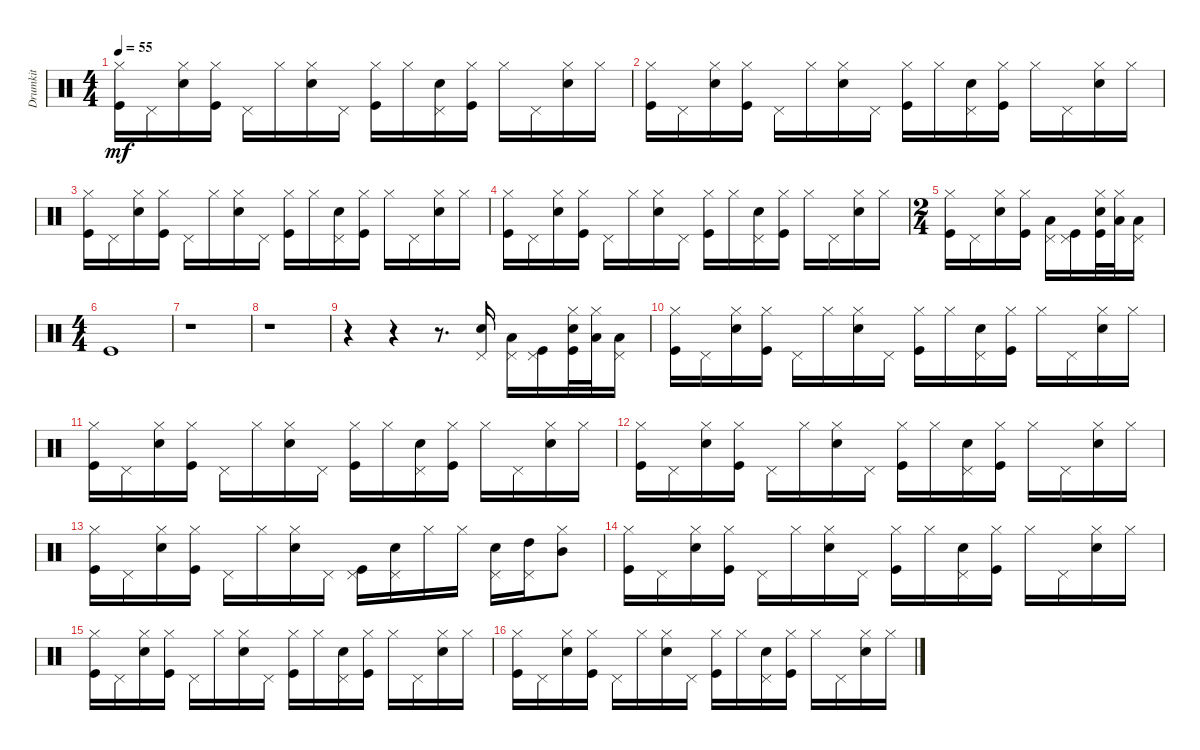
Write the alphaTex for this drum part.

\track ("Drumkit" "Drumkit") {instrument percussion}
\staff {score}
\articulation defaults
\ts (4 4)
\tempo 55
\clef neutral
\ks c
("Kick (hit)" "Hi-Hat (closed)").16{dy mf} "Pedal Hi-Hat (hit)".16 ("Hi-Hat (closed)" "Snare (hit) 2").16 ("Kick (hit)" "Hi-Hat (closed)").16 "Pedal Hi-Hat (hit)".16 "Hi-Hat (closed)".16 ("Snare (hit) 2" "Hi-Hat (closed)").16 "Pedal Hi-Hat (hit)".16 ("Kick (hit)" "Hi-Hat (closed)").16 "Hi-Hat (closed)".16 ("Snare (hit) 2" "Pedal Hi-Hat (hit)").16 ("Kick (hit)" "Hi-Hat (closed)").16 "Hi-Hat (closed)".16 "Pedal Hi-Hat (hit)".16 ("Snare (hit) 2" "Hi-Hat (closed)").16 "Hi-Hat (closed)".16 |
("Kick (hit)" "Hi-Hat (closed)").16 "Pedal Hi-Hat (hit)".16 ("Hi-Hat (closed)" "Snare (hit) 2").16 ("Kick (hit)" "Hi-Hat (closed)").16 "Pedal Hi-Hat (hit)".16 "Hi-Hat (closed)".16 ("Snare (hit) 2" "Hi-Hat (closed)").16 "Pedal Hi-Hat (hit)".16 ("Kick (hit)" "Hi-Hat (closed)").16 "Hi-Hat (closed)".16 ("Snare (hit) 2" "Pedal Hi-Hat (hit)").16 ("Kick (hit)" "Hi-Hat (closed)").16 "Hi-Hat (closed)".16 "Pedal Hi-Hat (hit)".16 ("Snare (hit) 2" "Hi-Hat (closed)").16 "Hi-Hat (closed)".16 |
("Kick (hit)" "Hi-Hat (closed)").16 "Pedal Hi-Hat (hit)".16 ("Hi-Hat (closed)" "Snare (hit) 2").16 ("Kick (hit)" "Hi-Hat (closed)").16 "Pedal Hi-Hat (hit)".16 "Hi-Hat (closed)".16 ("Snare (hit) 2" "Hi-Hat (closed)").16 "Pedal Hi-Hat (hit)".16 ("Kick (hit)" "Hi-Hat (closed)").16 "Hi-Hat (closed)".16 ("Snare (hit) 2" "Pedal Hi-Hat (hit)").16 ("Kick (hit)" "Hi-Hat (closed)").16 "Hi-Hat (closed)".16 "Pedal Hi-Hat (hit)".16 ("Snare (hit) 2" "Hi-Hat (closed)").16 "Hi-Hat (closed)".16 |
("Kick (hit)" "Hi-Hat (closed)").16 "Pedal Hi-Hat (hit)".16 ("Hi-Hat (closed)" "Snare (hit) 2").16 ("Kick (hit)" "Hi-Hat (closed)").16 "Pedal Hi-Hat (hit)".16 "Hi-Hat (closed)".16 ("Snare (hit) 2" "Hi-Hat (closed)").16 "Pedal Hi-Hat (hit)".16 ("Kick (hit)" "Hi-Hat (closed)").16 "Hi-Hat (closed)".16 ("Snare (hit) 2" "Pedal Hi-Hat (hit)").16 ("Kick (hit)" "Hi-Hat (closed)").16 "Hi-Hat (closed)".16 "Pedal Hi-Hat (hit)".16 ("Snare (hit) 2" "Hi-Hat (closed)").16 "Hi-Hat (closed)".16 |
\ts (2 4)
("Kick (hit)" "Hi-Hat (closed)").16 "Pedal Hi-Hat (hit)".16 ("Hi-Hat (closed)" "Snare (hit) 2").16 ("Kick (hit)" "Hi-Hat (closed)").16 ("Pedal Hi-Hat (hit)" "Low Tom (hit)").16 ("Pedal Hi-Hat (hit)" "Kick (hit)").16 ("Hi-Hat (closed)" "Kick (hit)" "Snare (hit) 2").32 ("Hi-Hat (closed)" "Low Tom (hit)").32 ("Pedal Hi-Hat (hit)" "Low Tom (hit)").16 |
\ts (4 4)
"Kick (hit)".1 |
r.1 |
r.1 |
r.4 r.4 r.8{d} ("Snare (hit) 2" "Pedal Hi-Hat (hit)").16 ("Pedal Hi-Hat (hit)" "Low Tom (hit)").16 ("Pedal Hi-Hat (hit)" "Kick (hit)").16 ("Hi-Hat (closed)" "Kick (hit)" "Snare (hit) 2").32 ("Hi-Hat (closed)" "Low Tom (hit)").32 ("Pedal Hi-Hat (hit)" "Low Tom (hit)").16 |
("Kick (hit)" "Hi-Hat (closed)").16 "Pedal Hi-Hat (hit)".16 ("Hi-Hat (closed)" "Snare (hit) 2").16 ("Kick (hit)" "Hi-Hat (closed)").16 "Pedal Hi-Hat (hit)".16 "Hi-Hat (closed)".16 ("Snare (hit) 2" "Hi-Hat (closed)").16 "Pedal Hi-Hat (hit)".16 ("Kick (hit)" "Hi-Hat (closed)").16 "Hi-Hat (closed)".16 ("Snare (hit) 2" "Pedal Hi-Hat (hit)").16 ("Kick (hit)" "Hi-Hat (closed)").16 "Hi-Hat (closed)".16 "Pedal Hi-Hat (hit)".16 ("Snare (hit) 2" "Hi-Hat (closed)").16 "Hi-Hat (closed)".16 |
("Kick (hit)" "Hi-Hat (closed)").16 "Pedal Hi-Hat (hit)".16 ("Hi-Hat (closed)" "Snare (hit) 2").16 ("Kick (hit)" "Hi-Hat (closed)").16 "Pedal Hi-Hat (hit)".16 "Hi-Hat (closed)".16 ("Snare (hit) 2" "Hi-Hat (closed)").16 "Pedal Hi-Hat (hit)".16 ("Kick (hit)" "Hi-Hat (closed)").16 "Hi-Hat (closed)".16 ("Snare (hit) 2" "Pedal Hi-Hat (hit)").16 ("Kick (hit)" "Hi-Hat (closed)").16 "Hi-Hat (closed)".16 "Pedal Hi-Hat (hit)".16 ("Snare (hit) 2" "Hi-Hat (closed)").16 "Hi-Hat (closed)".16 |
("Kick (hit)" "Hi-Hat (closed)").16 "Pedal Hi-Hat (hit)".16 ("Hi-Hat (closed)" "Snare (hit) 2").16 ("Kick (hit)" "Hi-Hat (closed)").16 "Pedal Hi-Hat (hit)".16 "Hi-Hat (closed)".16 ("Snare (hit) 2" "Hi-Hat (closed)").16 "Pedal Hi-Hat (hit)".16 ("Kick (hit)" "Hi-Hat (closed)").16 "Hi-Hat (closed)".16 ("Snare (hit) 2" "Pedal Hi-Hat (hit)").16 ("Kick (hit)" "Hi-Hat (closed)").16 "Hi-Hat (closed)".16 "Pedal Hi-Hat (hit)".16 ("Snare (hit) 2" "Hi-Hat (closed)").16 "Hi-Hat (closed)".16 |
("Kick (hit)" "Hi-Hat (closed)").16 "Pedal Hi-Hat (hit)".16 ("Hi-Hat (closed)" "Snare (hit) 2").16 ("Kick (hit)" "Hi-Hat (closed)").16 "Pedal Hi-Hat (hit)".16 "Hi-Hat (closed)".16 ("Snare (hit) 2" "Hi-Hat (closed)").16 "Pedal Hi-Hat (hit)".16 ("Pedal Hi-Hat (hit)" "Kick (hit)").16 ("Pedal Hi-Hat (hit)" "Snare (hit) 2").16 "Hi-Hat (closed)".16 "Hi-Hat (closed)".16 ("Snare (hit) 2" "Pedal Hi-Hat (hit)").16 ("Pedal Hi-Hat (hit)" "High Tom (hit)").16 ("Hi-Hat (closed)" "Mid Tom (hit)").8 |
("Kick (hit)" "Hi-Hat (closed)").16 "Pedal Hi-Hat (hit)".16 ("Hi-Hat (closed)" "Snare (hit) 2").16 ("Kick (hit)" "Hi-Hat (closed)").16 "Pedal Hi-Hat (hit)".16 "Hi-Hat (closed)".16 ("Snare (hit) 2" "Hi-Hat (closed)").16 "Pedal Hi-Hat (hit)".16 ("Kick (hit)" "Hi-Hat (closed)").16 "Hi-Hat (closed)".16 ("Snare (hit) 2" "Pedal Hi-Hat (hit)").16 ("Kick (hit)" "Hi-Hat (closed)").16 "Hi-Hat (closed)".16 "Pedal Hi-Hat (hit)".16 ("Snare (hit) 2" "Hi-Hat (closed)").16 "Hi-Hat (closed)".16 |
("Kick (hit)" "Hi-Hat (closed)").16 "Pedal Hi-Hat (hit)".16 ("Hi-Hat (closed)" "Snare (hit) 2").16 ("Kick (hit)" "Hi-Hat (closed)").16 "Pedal Hi-Hat (hit)".16 "Hi-Hat (closed)".16 ("Snare (hit) 2" "Hi-Hat (closed)").16 "Pedal Hi-Hat (hit)".16 ("Kick (hit)" "Hi-Hat (closed)").16 "Hi-Hat (closed)".16 ("Snare (hit) 2" "Pedal Hi-Hat (hit)").16 ("Kick (hit)" "Hi-Hat (closed)").16 "Hi-Hat (closed)".16 "Pedal Hi-Hat (hit)".16 ("Snare (hit) 2" "Hi-Hat (closed)").16 "Hi-Hat (closed)".16 |
("Kick (hit)" "Hi-Hat (closed)").16 "Pedal Hi-Hat (hit)".16 ("Hi-Hat (closed)" "Snare (hit) 2").16 ("Kick (hit)" "Hi-Hat (closed)").16 "Pedal Hi-Hat (hit)".16 "Hi-Hat (closed)".16 ("Snare (hit) 2" "Hi-Hat (closed)").16 "Pedal Hi-Hat (hit)".16 ("Kick (hit)" "Hi-Hat (closed)").16 "Hi-Hat (closed)".16 ("Snare (hit) 2" "Pedal Hi-Hat (hit)").16 ("Kick (hit)" "Hi-Hat (closed)").16 "Hi-Hat (closed)".16 "Pedal Hi-Hat (hit)".16 ("Snare (hit) 2" "Hi-Hat (closed)").16 "Hi-Hat (closed)".16
